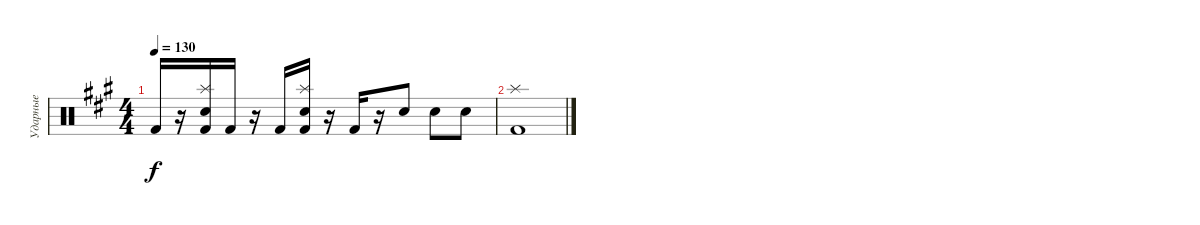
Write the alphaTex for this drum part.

\track ("Ударные" "Ударные") {instrument percussion}
\staff {score}
\articulation defaults
\ts (4 4)
\tempo 130
\clef neutral
\ks f#minor "Kick (hit) 2".16{dy f}
r.16 ("Splash (hit)" "Snare (hit) 2" "Kick (hit) 2").16 "Kick (hit) 2".16 r.16 "Kick (hit) 2".16 ("Splash (hit)" "Snare (hit) 2" "Kick (hit) 2").16 r.16 "Kick (hit) 2".16 r.16 "Snare (hit) 2".8 "Snare (hit) 2".8 "Snare (hit) 2".8 |
("Splash (hit)" "Kick (hit) 2").1
